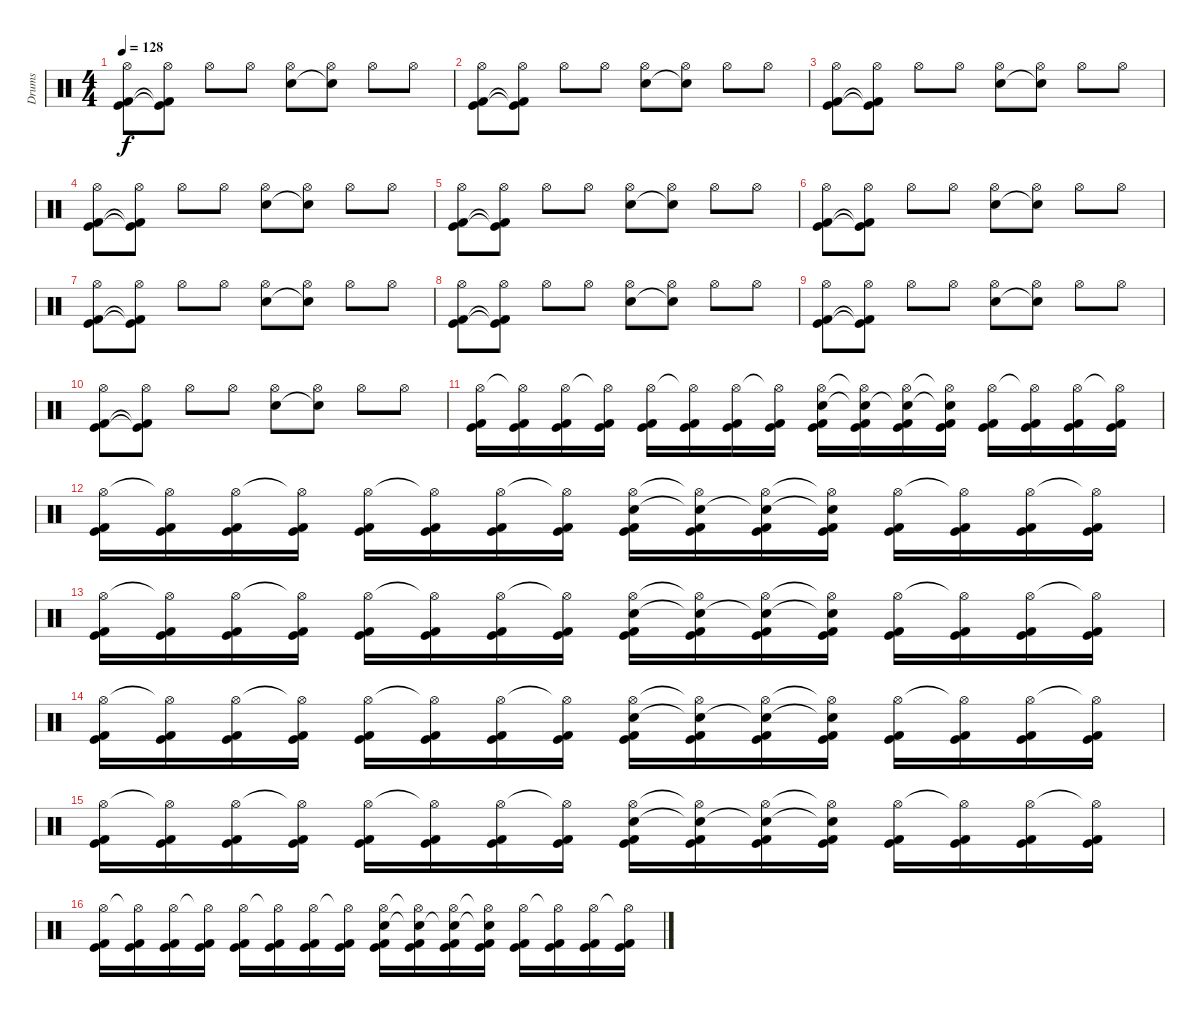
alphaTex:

\track ("Drums" "Drums") {instrument percussion}
\staff {score}
\articulation defaults
\ts (4 4)
\tempo 128
\clef neutral
\ks c
("Hi-Hat (open)" "Kick (hit) 2" "Kick (hit)").8{dy f} ("Hi-Hat (open)" "Kick (hit) 2"{t} "Kick (hit)"{t}).8 "Hi-Hat (open)".8 "Hi-Hat (open)".8 ("Hi-Hat (open)" "Snare (hit) 2").8 ("Hi-Hat (open)" "Snare (hit) 2"{t}).8 "Hi-Hat (open)".8 "Hi-Hat (open)".8 |
("Hi-Hat (open)" "Kick (hit) 2" "Kick (hit)").8 ("Hi-Hat (open)" "Kick (hit) 2"{t} "Kick (hit)"{t}).8 "Hi-Hat (open)".8 "Hi-Hat (open)".8 ("Hi-Hat (open)" "Snare (hit) 2").8 ("Hi-Hat (open)" "Snare (hit) 2"{t}).8 "Hi-Hat (open)".8 "Hi-Hat (open)".8 |
("Hi-Hat (open)" "Kick (hit) 2" "Kick (hit)").8 ("Hi-Hat (open)" "Kick (hit) 2"{t} "Kick (hit)"{t}).8 "Hi-Hat (open)".8 "Hi-Hat (open)".8 ("Hi-Hat (open)" "Snare (hit) 2").8 ("Hi-Hat (open)" "Snare (hit) 2"{t}).8 "Hi-Hat (open)".8 "Hi-Hat (open)".8 |
("Hi-Hat (open)" "Kick (hit) 2" "Kick (hit)").8 ("Hi-Hat (open)" "Kick (hit) 2"{t} "Kick (hit)"{t}).8 "Hi-Hat (open)".8 "Hi-Hat (open)".8 ("Hi-Hat (open)" "Snare (hit) 2").8 ("Hi-Hat (open)" "Snare (hit) 2"{t}).8 "Hi-Hat (open)".8 "Hi-Hat (open)".8 |
("Hi-Hat (open)" "Kick (hit) 2" "Kick (hit)").8 ("Hi-Hat (open)" "Kick (hit) 2"{t} "Kick (hit)"{t}).8 "Hi-Hat (open)".8 "Hi-Hat (open)".8 ("Hi-Hat (open)" "Snare (hit) 2").8 ("Hi-Hat (open)" "Snare (hit) 2"{t}).8 "Hi-Hat (open)".8 "Hi-Hat (open)".8 |
("Hi-Hat (open)" "Kick (hit) 2" "Kick (hit)").8 ("Hi-Hat (open)" "Kick (hit) 2"{t} "Kick (hit)"{t}).8 "Hi-Hat (open)".8 "Hi-Hat (open)".8 ("Hi-Hat (open)" "Snare (hit) 2").8 ("Hi-Hat (open)" "Snare (hit) 2"{t}).8 "Hi-Hat (open)".8 "Hi-Hat (open)".8 |
("Hi-Hat (open)" "Kick (hit) 2" "Kick (hit)").8 ("Hi-Hat (open)" "Kick (hit) 2"{t} "Kick (hit)"{t}).8 "Hi-Hat (open)".8 "Hi-Hat (open)".8 ("Hi-Hat (open)" "Snare (hit) 2").8 ("Hi-Hat (open)" "Snare (hit) 2"{t}).8 "Hi-Hat (open)".8 "Hi-Hat (open)".8 |
("Hi-Hat (open)" "Kick (hit) 2" "Kick (hit)").8 ("Hi-Hat (open)" "Kick (hit) 2"{t} "Kick (hit)"{t}).8 "Hi-Hat (open)".8 "Hi-Hat (open)".8 ("Hi-Hat (open)" "Snare (hit) 2").8 ("Hi-Hat (open)" "Snare (hit) 2"{t}).8 "Hi-Hat (open)".8 "Hi-Hat (open)".8 |
("Hi-Hat (open)" "Kick (hit) 2" "Kick (hit)").8 ("Hi-Hat (open)" "Kick (hit) 2"{t} "Kick (hit)"{t}).8 "Hi-Hat (open)".8 "Hi-Hat (open)".8 ("Hi-Hat (open)" "Snare (hit) 2").8 ("Hi-Hat (open)" "Snare (hit) 2"{t}).8 "Hi-Hat (open)".8 "Hi-Hat (open)".8 |
("Hi-Hat (open)" "Kick (hit) 2" "Kick (hit)").8 ("Hi-Hat (open)" "Kick (hit) 2"{t} "Kick (hit)"{t}).8 "Hi-Hat (open)".8 "Hi-Hat (open)".8 ("Hi-Hat (open)" "Snare (hit) 2").8 ("Hi-Hat (open)" "Snare (hit) 2"{t}).8 "Hi-Hat (open)".8 "Hi-Hat (open)".8 |
("Hi-Hat (open)" "Kick (hit) 2" "Kick (hit)").16 ("Hi-Hat (open)"{t} "Kick (hit) 2" "Kick (hit)").16 ("Hi-Hat (open)" "Kick (hit) 2" "Kick (hit)").16 ("Hi-Hat (open)"{t} "Kick (hit) 2" "Kick (hit)").16 ("Hi-Hat (open)" "Kick (hit) 2" "Kick (hit)").16 ("Hi-Hat (open)"{t} "Kick (hit) 2" "Kick (hit)").16 ("Hi-Hat (open)" "Kick (hit) 2" "Kick (hit)").16 ("Hi-Hat (open)"{t} "Kick (hit) 2" "Kick (hit)").16 ("Hi-Hat (open)" "Snare (hit) 2" "Kick (hit) 2" "Kick (hit)").16 ("Hi-Hat (open)"{t} "Snare (hit) 2"{t} "Kick (hit) 2" "Kick (hit)").16 ("Hi-Hat (open)" "Snare (hit) 2"{t} "Kick (hit) 2" "Kick (hit)").16 ("Hi-Hat (open)"{t} "Snare (hit) 2"{t} "Kick (hit) 2" "Kick (hit)").16 ("Hi-Hat (open)" "Kick (hit) 2" "Kick (hit)").16 ("Hi-Hat (open)"{t} "Kick (hit) 2" "Kick (hit)").16 ("Hi-Hat (open)" "Kick (hit) 2" "Kick (hit)").16 ("Hi-Hat (open)"{t} "Kick (hit) 2" "Kick (hit)").16 |
("Hi-Hat (open)" "Kick (hit) 2" "Kick (hit)").16 ("Hi-Hat (open)"{t} "Kick (hit) 2" "Kick (hit)").16 ("Hi-Hat (open)" "Kick (hit) 2" "Kick (hit)").16 ("Hi-Hat (open)"{t} "Kick (hit) 2" "Kick (hit)").16 ("Hi-Hat (open)" "Kick (hit) 2" "Kick (hit)").16 ("Hi-Hat (open)"{t} "Kick (hit) 2" "Kick (hit)").16 ("Hi-Hat (open)" "Kick (hit) 2" "Kick (hit)").16 ("Hi-Hat (open)"{t} "Kick (hit) 2" "Kick (hit)").16 ("Hi-Hat (open)" "Snare (hit) 2" "Kick (hit) 2" "Kick (hit)").16 ("Hi-Hat (open)"{t} "Snare (hit) 2"{t} "Kick (hit) 2" "Kick (hit)").16 ("Hi-Hat (open)" "Snare (hit) 2"{t} "Kick (hit) 2" "Kick (hit)").16 ("Hi-Hat (open)"{t} "Snare (hit) 2"{t} "Kick (hit) 2" "Kick (hit)").16 ("Hi-Hat (open)" "Kick (hit) 2" "Kick (hit)").16 ("Hi-Hat (open)"{t} "Kick (hit) 2" "Kick (hit)").16 ("Hi-Hat (open)" "Kick (hit) 2" "Kick (hit)").16 ("Hi-Hat (open)"{t} "Kick (hit) 2" "Kick (hit)").16 |
("Hi-Hat (open)" "Kick (hit) 2" "Kick (hit)").16 ("Hi-Hat (open)"{t} "Kick (hit) 2" "Kick (hit)").16 ("Hi-Hat (open)" "Kick (hit) 2" "Kick (hit)").16 ("Hi-Hat (open)"{t} "Kick (hit) 2" "Kick (hit)").16 ("Hi-Hat (open)" "Kick (hit) 2" "Kick (hit)").16 ("Hi-Hat (open)"{t} "Kick (hit) 2" "Kick (hit)").16 ("Hi-Hat (open)" "Kick (hit) 2" "Kick (hit)").16 ("Hi-Hat (open)"{t} "Kick (hit) 2" "Kick (hit)").16 ("Hi-Hat (open)" "Snare (hit) 2" "Kick (hit) 2" "Kick (hit)").16 ("Hi-Hat (open)"{t} "Snare (hit) 2"{t} "Kick (hit) 2" "Kick (hit)").16 ("Hi-Hat (open)" "Snare (hit) 2"{t} "Kick (hit) 2" "Kick (hit)").16 ("Hi-Hat (open)"{t} "Snare (hit) 2"{t} "Kick (hit) 2" "Kick (hit)").16 ("Hi-Hat (open)" "Kick (hit) 2" "Kick (hit)").16 ("Hi-Hat (open)"{t} "Kick (hit) 2" "Kick (hit)").16 ("Hi-Hat (open)" "Kick (hit) 2" "Kick (hit)").16 ("Hi-Hat (open)"{t} "Kick (hit) 2" "Kick (hit)").16 |
("Hi-Hat (open)" "Kick (hit) 2" "Kick (hit)").16 ("Hi-Hat (open)"{t} "Kick (hit) 2" "Kick (hit)").16 ("Hi-Hat (open)" "Kick (hit) 2" "Kick (hit)").16 ("Hi-Hat (open)"{t} "Kick (hit) 2" "Kick (hit)").16 ("Hi-Hat (open)" "Kick (hit) 2" "Kick (hit)").16 ("Hi-Hat (open)"{t} "Kick (hit) 2" "Kick (hit)").16 ("Hi-Hat (open)" "Kick (hit) 2" "Kick (hit)").16 ("Hi-Hat (open)"{t} "Kick (hit) 2" "Kick (hit)").16 ("Hi-Hat (open)" "Snare (hit) 2" "Kick (hit) 2" "Kick (hit)").16 ("Hi-Hat (open)"{t} "Snare (hit) 2"{t} "Kick (hit) 2" "Kick (hit)").16 ("Hi-Hat (open)" "Snare (hit) 2"{t} "Kick (hit) 2" "Kick (hit)").16 ("Hi-Hat (open)"{t} "Snare (hit) 2"{t} "Kick (hit) 2" "Kick (hit)").16 ("Hi-Hat (open)" "Kick (hit) 2" "Kick (hit)").16 ("Hi-Hat (open)"{t} "Kick (hit) 2" "Kick (hit)").16 ("Hi-Hat (open)" "Kick (hit) 2" "Kick (hit)").16 ("Hi-Hat (open)"{t} "Kick (hit) 2" "Kick (hit)").16 |
("Hi-Hat (open)" "Kick (hit) 2" "Kick (hit)").16 ("Hi-Hat (open)"{t} "Kick (hit) 2" "Kick (hit)").16 ("Hi-Hat (open)" "Kick (hit) 2" "Kick (hit)").16 ("Hi-Hat (open)"{t} "Kick (hit) 2" "Kick (hit)").16 ("Hi-Hat (open)" "Kick (hit) 2" "Kick (hit)").16 ("Hi-Hat (open)"{t} "Kick (hit) 2" "Kick (hit)").16 ("Hi-Hat (open)" "Kick (hit) 2" "Kick (hit)").16 ("Hi-Hat (open)"{t} "Kick (hit) 2" "Kick (hit)").16 ("Hi-Hat (open)" "Snare (hit) 2" "Kick (hit) 2" "Kick (hit)").16 ("Hi-Hat (open)"{t} "Snare (hit) 2"{t} "Kick (hit) 2" "Kick (hit)").16 ("Hi-Hat (open)" "Snare (hit) 2"{t} "Kick (hit) 2" "Kick (hit)").16 ("Hi-Hat (open)"{t} "Snare (hit) 2"{t} "Kick (hit) 2" "Kick (hit)").16 ("Hi-Hat (open)" "Kick (hit) 2" "Kick (hit)").16 ("Hi-Hat (open)"{t} "Kick (hit) 2" "Kick (hit)").16 ("Hi-Hat (open)" "Kick (hit) 2" "Kick (hit)").16 ("Hi-Hat (open)"{t} "Kick (hit) 2" "Kick (hit)").16 |
("Hi-Hat (open)" "Kick (hit) 2" "Kick (hit)").16 ("Hi-Hat (open)"{t} "Kick (hit) 2" "Kick (hit)").16 ("Hi-Hat (open)" "Kick (hit) 2" "Kick (hit)").16 ("Hi-Hat (open)"{t} "Kick (hit) 2" "Kick (hit)").16 ("Hi-Hat (open)" "Kick (hit) 2" "Kick (hit)").16 ("Hi-Hat (open)"{t} "Kick (hit) 2" "Kick (hit)").16 ("Hi-Hat (open)" "Kick (hit) 2" "Kick (hit)").16 ("Hi-Hat (open)"{t} "Kick (hit) 2" "Kick (hit)").16 ("Hi-Hat (open)" "Snare (hit) 2" "Kick (hit) 2" "Kick (hit)").16 ("Hi-Hat (open)"{t} "Snare (hit) 2"{t} "Kick (hit) 2" "Kick (hit)").16 ("Hi-Hat (open)" "Snare (hit) 2"{t} "Kick (hit) 2" "Kick (hit)").16 ("Hi-Hat (open)"{t} "Snare (hit) 2"{t} "Kick (hit) 2" "Kick (hit)").16 ("Hi-Hat (open)" "Kick (hit) 2" "Kick (hit)").16 ("Hi-Hat (open)"{t} "Kick (hit) 2" "Kick (hit)").16 ("Hi-Hat (open)" "Kick (hit) 2" "Kick (hit)").16 ("Hi-Hat (open)"{t} "Kick (hit) 2" "Kick (hit)").16
